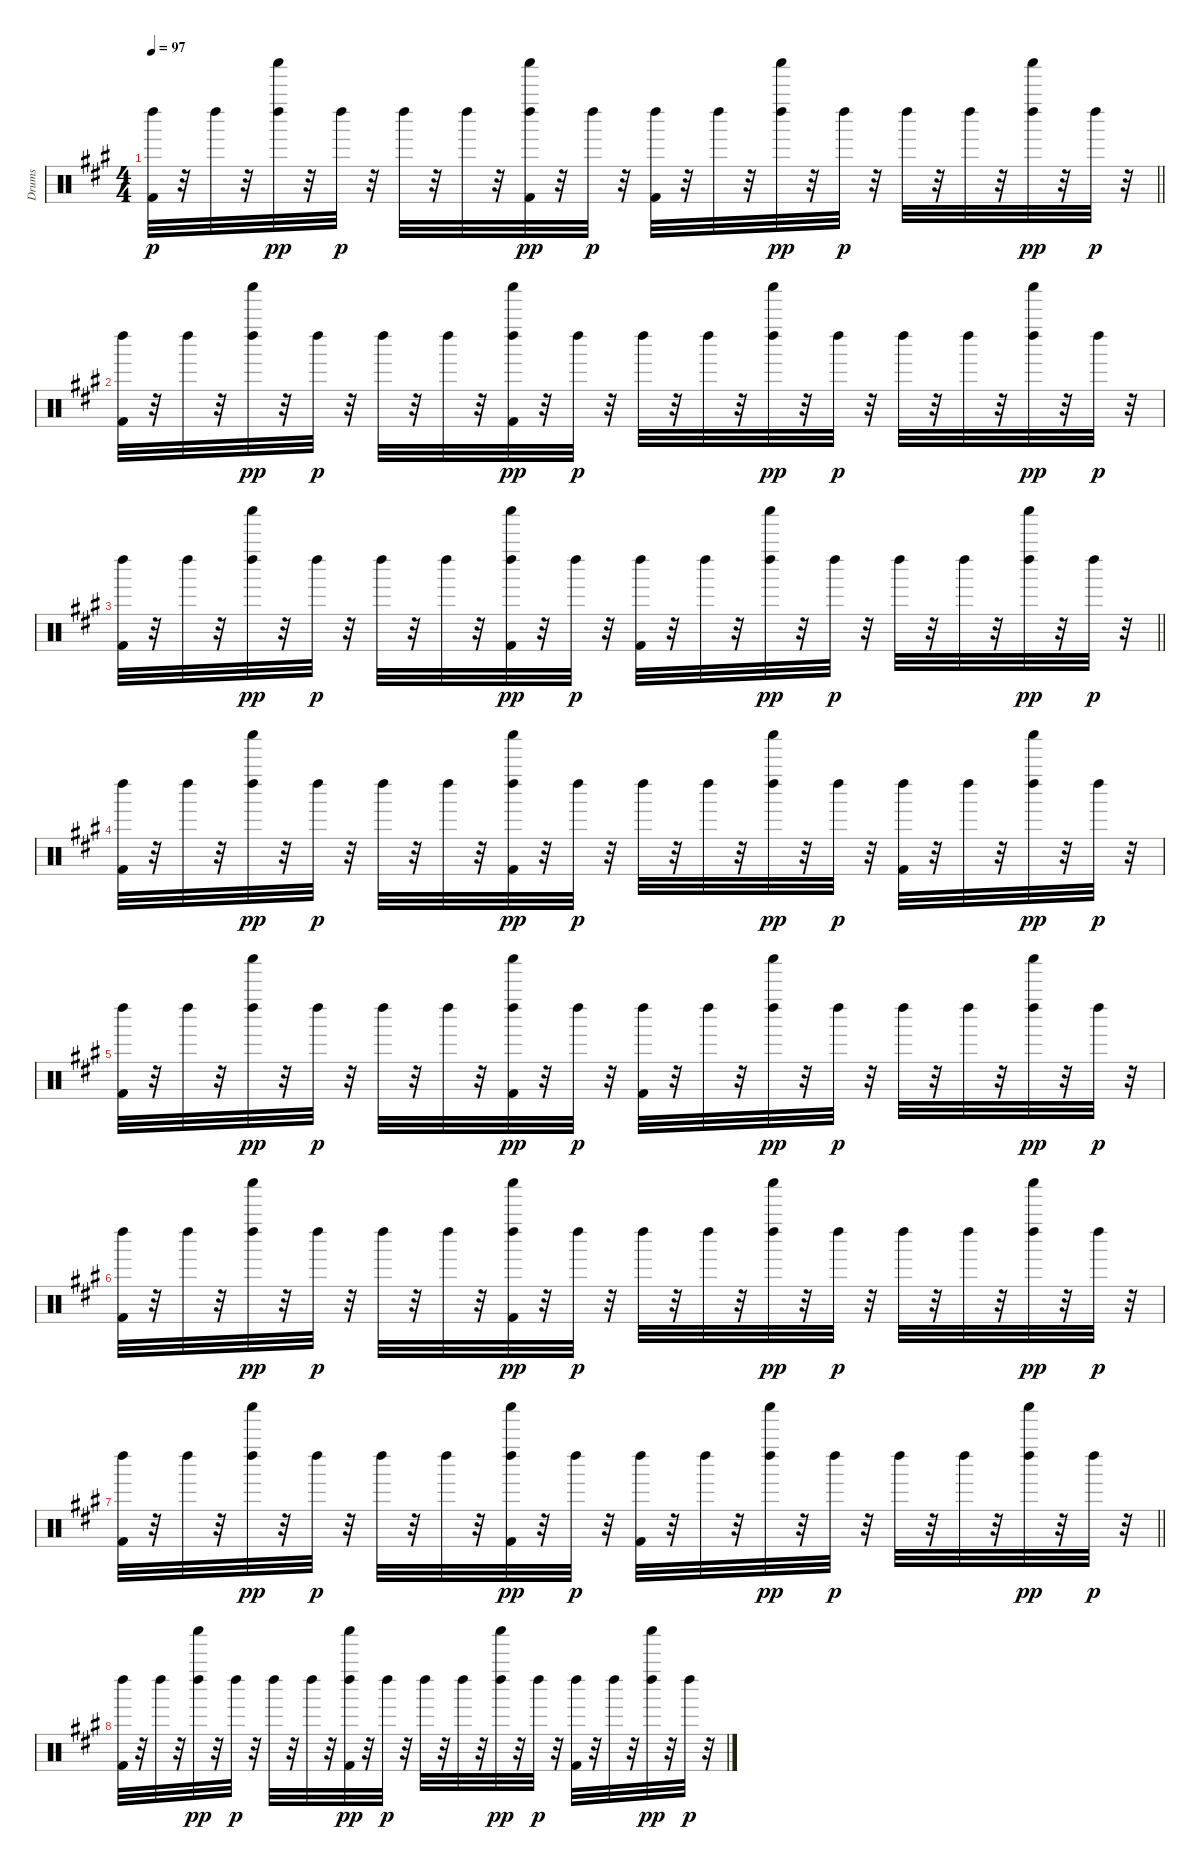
\track ("Drums" "Drums") {instrument percussion}
\staff {score}
\articulation defaults
\ts (4 4)
\tempo 97
\clef neutral
\barLineRight lightlight
\ks a
("Kick (hit) 2" "Left Maraca (hit)").32{dy p} r.32 "Left Maraca (hit)".32 r.32 ("Shaker (hit)" "Left Maraca (hit)").32{dy pp} r.32 "Left Maraca (hit)".32{dy p} r.32 "Left Maraca (hit)".32 r.32 "Left Maraca (hit)".32 r.32 ("Kick (hit) 2" "Shaker (hit)" "Left Maraca (hit)").32{dy pp} r.32 "Left Maraca (hit)".32{dy p} r.32 ("Kick (hit) 2" "Left Maraca (hit)").32 r.32 "Left Maraca (hit)".32 r.32 ("Shaker (hit)" "Left Maraca (hit)").32{dy pp} r.32 "Left Maraca (hit)".32{dy p} r.32 "Left Maraca (hit)".32 r.32 "Left Maraca (hit)".32 r.32 ("Shaker (hit)" "Left Maraca (hit)").32{dy pp} r.32 "Left Maraca (hit)".32{dy p} r.32 |
("Kick (hit) 2" "Left Maraca (hit)").32 r.32 "Left Maraca (hit)".32 r.32 ("Shaker (hit)" "Left Maraca (hit)").32{dy pp} r.32 "Left Maraca (hit)".32{dy p} r.32 "Left Maraca (hit)".32 r.32 "Left Maraca (hit)".32 r.32 ("Kick (hit) 2" "Shaker (hit)" "Left Maraca (hit)").32{dy pp} r.32 "Left Maraca (hit)".32{dy p} r.32 "Left Maraca (hit)".32 r.32 "Left Maraca (hit)".32 r.32 ("Shaker (hit)" "Left Maraca (hit)").32{dy pp} r.32 "Left Maraca (hit)".32{dy p} r.32 "Left Maraca (hit)".32 r.32 "Left Maraca (hit)".32 r.32 ("Shaker (hit)" "Left Maraca (hit)").32{dy pp} r.32 "Left Maraca (hit)".32{dy p} r.32 |
\barLineRight lightlight
("Kick (hit) 2" "Left Maraca (hit)").32 r.32 "Left Maraca (hit)".32 r.32 ("Shaker (hit)" "Left Maraca (hit)").32{dy pp} r.32 "Left Maraca (hit)".32{dy p} r.32 "Left Maraca (hit)".32 r.32 "Left Maraca (hit)".32 r.32 ("Kick (hit) 2" "Shaker (hit)" "Left Maraca (hit)").32{dy pp} r.32 "Left Maraca (hit)".32{dy p} r.32 ("Kick (hit) 2" "Left Maraca (hit)").32 r.32 "Left Maraca (hit)".32 r.32 ("Shaker (hit)" "Left Maraca (hit)").32{dy pp} r.32 "Left Maraca (hit)".32{dy p} r.32 "Left Maraca (hit)".32 r.32 "Left Maraca (hit)".32 r.32 ("Shaker (hit)" "Left Maraca (hit)").32{dy pp} r.32 "Left Maraca (hit)".32{dy p} r.32 |
("Kick (hit) 2" "Left Maraca (hit)").32 r.32 "Left Maraca (hit)".32 r.32 ("Shaker (hit)" "Left Maraca (hit)").32{dy pp} r.32 "Left Maraca (hit)".32{dy p} r.32 "Left Maraca (hit)".32 r.32 "Left Maraca (hit)".32 r.32 ("Kick (hit) 2" "Shaker (hit)" "Left Maraca (hit)").32{dy pp} r.32 "Left Maraca (hit)".32{dy p} r.32 "Left Maraca (hit)".32 r.32 "Left Maraca (hit)".32 r.32 ("Shaker (hit)" "Left Maraca (hit)").32{dy pp} r.32 "Left Maraca (hit)".32{dy p} r.32 ("Kick (hit) 2" "Left Maraca (hit)").32 r.32 "Left Maraca (hit)".32 r.32 ("Shaker (hit)" "Left Maraca (hit)").32{dy pp} r.32 "Left Maraca (hit)".32{dy p} r.32 |
("Kick (hit) 2" "Left Maraca (hit)").32 r.32 "Left Maraca (hit)".32 r.32 ("Shaker (hit)" "Left Maraca (hit)").32{dy pp} r.32 "Left Maraca (hit)".32{dy p} r.32 "Left Maraca (hit)".32 r.32 "Left Maraca (hit)".32 r.32 ("Kick (hit) 2" "Shaker (hit)" "Left Maraca (hit)").32{dy pp} r.32 "Left Maraca (hit)".32{dy p} r.32 ("Kick (hit) 2" "Left Maraca (hit)").32 r.32 "Left Maraca (hit)".32 r.32 ("Shaker (hit)" "Left Maraca (hit)").32{dy pp} r.32 "Left Maraca (hit)".32{dy p} r.32 "Left Maraca (hit)".32 r.32 "Left Maraca (hit)".32 r.32 ("Shaker (hit)" "Left Maraca (hit)").32{dy pp} r.32 "Left Maraca (hit)".32{dy p} r.32 |
("Kick (hit) 2" "Left Maraca (hit)").32 r.32 "Left Maraca (hit)".32 r.32 ("Shaker (hit)" "Left Maraca (hit)").32{dy pp} r.32 "Left Maraca (hit)".32{dy p} r.32 "Left Maraca (hit)".32 r.32 "Left Maraca (hit)".32 r.32 ("Kick (hit) 2" "Shaker (hit)" "Left Maraca (hit)").32{dy pp} r.32 "Left Maraca (hit)".32{dy p} r.32 "Left Maraca (hit)".32 r.32 "Left Maraca (hit)".32 r.32 ("Shaker (hit)" "Left Maraca (hit)").32{dy pp} r.32 "Left Maraca (hit)".32{dy p} r.32 "Left Maraca (hit)".32 r.32 "Left Maraca (hit)".32 r.32 ("Shaker (hit)" "Left Maraca (hit)").32{dy pp} r.32 "Left Maraca (hit)".32{dy p} r.32 |
\barLineRight lightlight
("Kick (hit) 2" "Left Maraca (hit)").32 r.32 "Left Maraca (hit)".32 r.32 ("Shaker (hit)" "Left Maraca (hit)").32{dy pp} r.32 "Left Maraca (hit)".32{dy p} r.32 "Left Maraca (hit)".32 r.32 "Left Maraca (hit)".32 r.32 ("Kick (hit) 2" "Shaker (hit)" "Left Maraca (hit)").32{dy pp} r.32 "Left Maraca (hit)".32{dy p} r.32 ("Kick (hit) 2" "Left Maraca (hit)").32 r.32 "Left Maraca (hit)".32 r.32 ("Shaker (hit)" "Left Maraca (hit)").32{dy pp} r.32 "Left Maraca (hit)".32{dy p} r.32 "Left Maraca (hit)".32 r.32 "Left Maraca (hit)".32 r.32 ("Shaker (hit)" "Left Maraca (hit)").32{dy pp} r.32 "Left Maraca (hit)".32{dy p} r.32 |
("Kick (hit) 2" "Left Maraca (hit)").32 r.32 "Left Maraca (hit)".32 r.32 ("Shaker (hit)" "Left Maraca (hit)").32{dy pp} r.32 "Left Maraca (hit)".32{dy p} r.32 "Left Maraca (hit)".32 r.32 "Left Maraca (hit)".32 r.32 ("Kick (hit) 2" "Shaker (hit)" "Left Maraca (hit)").32{dy pp} r.32 "Left Maraca (hit)".32{dy p} r.32 "Left Maraca (hit)".32 r.32 "Left Maraca (hit)".32 r.32 ("Shaker (hit)" "Left Maraca (hit)").32{dy pp} r.32 "Left Maraca (hit)".32{dy p} r.32 ("Kick (hit) 2" "Left Maraca (hit)").32 r.32 "Left Maraca (hit)".32 r.32 ("Shaker (hit)" "Left Maraca (hit)").32{dy pp} r.32 "Left Maraca (hit)".32{dy p} r.32
